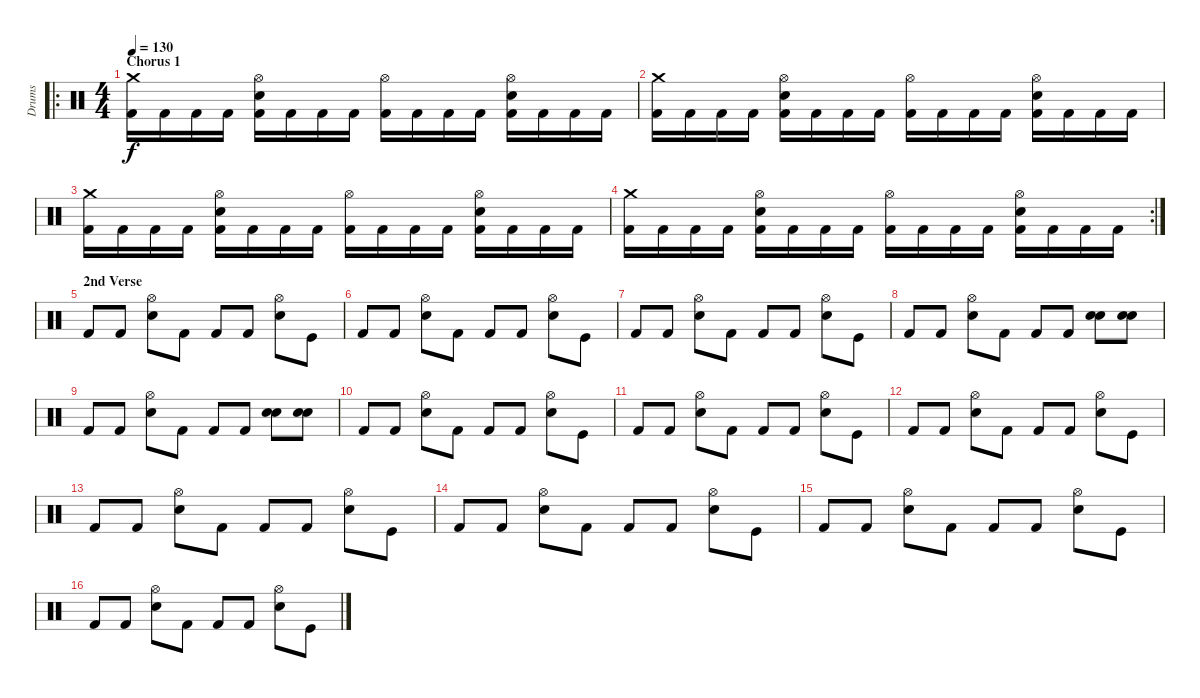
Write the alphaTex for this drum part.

\track ("Drums" "Drums") {instrument percussion}
\staff {score}
\articulation defaults
\ro
\ts (4 4)
\section ("" "Chorus 1")
\tempo 130
\clef neutral
\ks c
("Kick (hit) 2" "Crash medium (hit)").16{dy f volume 10} "Kick (hit) 2".16 "Kick (hit) 2".16 "Kick (hit) 2".16 ("Kick (hit) 2" "Electric Snare (hit)" "Hi-Hat (open)").16 "Kick (hit) 2".16 "Kick (hit) 2".16 "Kick (hit) 2".16 ("Kick (hit) 2" "Hi-Hat (open)").16 "Kick (hit) 2".16 "Kick (hit) 2".16 "Kick (hit) 2".16 ("Kick (hit) 2" "Electric Snare (hit)" "Hi-Hat (open)").16 "Kick (hit) 2".16 "Kick (hit) 2".16 "Kick (hit) 2".16 |
("Kick (hit) 2" "Crash medium (hit)").16 "Kick (hit) 2".16 "Kick (hit) 2".16 "Kick (hit) 2".16 ("Kick (hit) 2" "Electric Snare (hit)" "Hi-Hat (open)").16 "Kick (hit) 2".16 "Kick (hit) 2".16 "Kick (hit) 2".16 ("Kick (hit) 2" "Hi-Hat (open)").16 "Kick (hit) 2".16 "Kick (hit) 2".16 "Kick (hit) 2".16 ("Kick (hit) 2" "Electric Snare (hit)" "Hi-Hat (open)").16 "Kick (hit) 2".16 "Kick (hit) 2".16 "Kick (hit) 2".16 |
("Kick (hit) 2" "Crash medium (hit)").16 "Kick (hit) 2".16 "Kick (hit) 2".16 "Kick (hit) 2".16 ("Kick (hit) 2" "Electric Snare (hit)" "Hi-Hat (open)").16 "Kick (hit) 2".16 "Kick (hit) 2".16 "Kick (hit) 2".16 ("Kick (hit) 2" "Hi-Hat (open)").16 "Kick (hit) 2".16 "Kick (hit) 2".16 "Kick (hit) 2".16 ("Kick (hit) 2" "Electric Snare (hit)" "Hi-Hat (open)").16 "Kick (hit) 2".16 "Kick (hit) 2".16 "Kick (hit) 2".16 |
\rc 2
("Kick (hit) 2" "Crash medium (hit)").16 "Kick (hit) 2".16 "Kick (hit) 2".16 "Kick (hit) 2".16 ("Kick (hit) 2" "Electric Snare (hit)" "Hi-Hat (open)").16 "Kick (hit) 2".16 "Kick (hit) 2".16 "Kick (hit) 2".16 ("Kick (hit) 2" "Hi-Hat (open)").16 "Kick (hit) 2".16 "Kick (hit) 2".16 "Kick (hit) 2".16 ("Kick (hit) 2" "Electric Snare (hit)" "Hi-Hat (open)").16 "Kick (hit) 2".16 "Kick (hit) 2".16 "Kick (hit) 2".16 |
\section ("" "2nd Verse")
"Kick (hit) 2".8 "Kick (hit) 2".8 ("Electric Snare (hit)" "Hi-Hat (open)").8 "Kick (hit) 2".8 "Kick (hit) 2".8 "Kick (hit) 2".8 ("Electric Snare (hit)" "Hi-Hat (open)").8 "Kick (hit)".8 |
"Kick (hit) 2".8 "Kick (hit) 2".8 ("Electric Snare (hit)" "Hi-Hat (open)").8 "Kick (hit) 2".8 "Kick (hit) 2".8 "Kick (hit) 2".8 ("Electric Snare (hit)" "Hi-Hat (open)").8 "Kick (hit)".8 |
"Kick (hit) 2".8 "Kick (hit) 2".8 ("Electric Snare (hit)" "Hi-Hat (open)").8 "Kick (hit) 2".8 "Kick (hit) 2".8 "Kick (hit) 2".8 ("Electric Snare (hit)" "Hi-Hat (open)").8 "Kick (hit)".8 |
"Kick (hit) 2".8 "Kick (hit) 2".8 ("Electric Snare (hit)" "Hi-Hat (open)").8 "Kick (hit) 2".8 "Kick (hit) 2".8 "Kick (hit) 2".8 ("Electric Snare (hit)" "Electric Snare (hit)").8{bd 480} ("Electric Snare (hit)" "Electric Snare (hit)").8{bd 480} |
"Kick (hit) 2".8 "Kick (hit) 2".8 ("Electric Snare (hit)" "Hi-Hat (open)").8 "Kick (hit) 2".8 "Kick (hit) 2".8 "Kick (hit) 2".8 ("Electric Snare (hit)" "Electric Snare (hit)").8{bd 480} ("Electric Snare (hit)" "Electric Snare (hit)").8{bd 480} |
"Kick (hit) 2".8 "Kick (hit) 2".8 ("Electric Snare (hit)" "Hi-Hat (open)").8 "Kick (hit) 2".8 "Kick (hit) 2".8 "Kick (hit) 2".8 ("Electric Snare (hit)" "Hi-Hat (open)").8 "Kick (hit)".8 |
"Kick (hit) 2".8 "Kick (hit) 2".8 ("Electric Snare (hit)" "Hi-Hat (open)").8 "Kick (hit) 2".8 "Kick (hit) 2".8 "Kick (hit) 2".8 ("Electric Snare (hit)" "Hi-Hat (open)").8 "Kick (hit)".8 |
"Kick (hit) 2".8 "Kick (hit) 2".8 ("Electric Snare (hit)" "Hi-Hat (open)").8 "Kick (hit) 2".8 "Kick (hit) 2".8 "Kick (hit) 2".8 ("Electric Snare (hit)" "Hi-Hat (open)").8 "Kick (hit)".8 |
"Kick (hit) 2".8 "Kick (hit) 2".8 ("Electric Snare (hit)" "Hi-Hat (open)").8 "Kick (hit) 2".8 "Kick (hit) 2".8 "Kick (hit) 2".8 ("Electric Snare (hit)" "Hi-Hat (open)").8 "Kick (hit)".8 |
"Kick (hit) 2".8 "Kick (hit) 2".8 ("Electric Snare (hit)" "Hi-Hat (open)").8 "Kick (hit) 2".8 "Kick (hit) 2".8 "Kick (hit) 2".8 ("Electric Snare (hit)" "Hi-Hat (open)").8 "Kick (hit)".8 |
"Kick (hit) 2".8 "Kick (hit) 2".8 ("Electric Snare (hit)" "Hi-Hat (open)").8 "Kick (hit) 2".8 "Kick (hit) 2".8 "Kick (hit) 2".8 ("Electric Snare (hit)" "Hi-Hat (open)").8 "Kick (hit)".8 |
"Kick (hit) 2".8 "Kick (hit) 2".8 ("Electric Snare (hit)" "Hi-Hat (open)").8 "Kick (hit) 2".8 "Kick (hit) 2".8 "Kick (hit) 2".8 ("Electric Snare (hit)" "Hi-Hat (open)").8 "Kick (hit)".8
